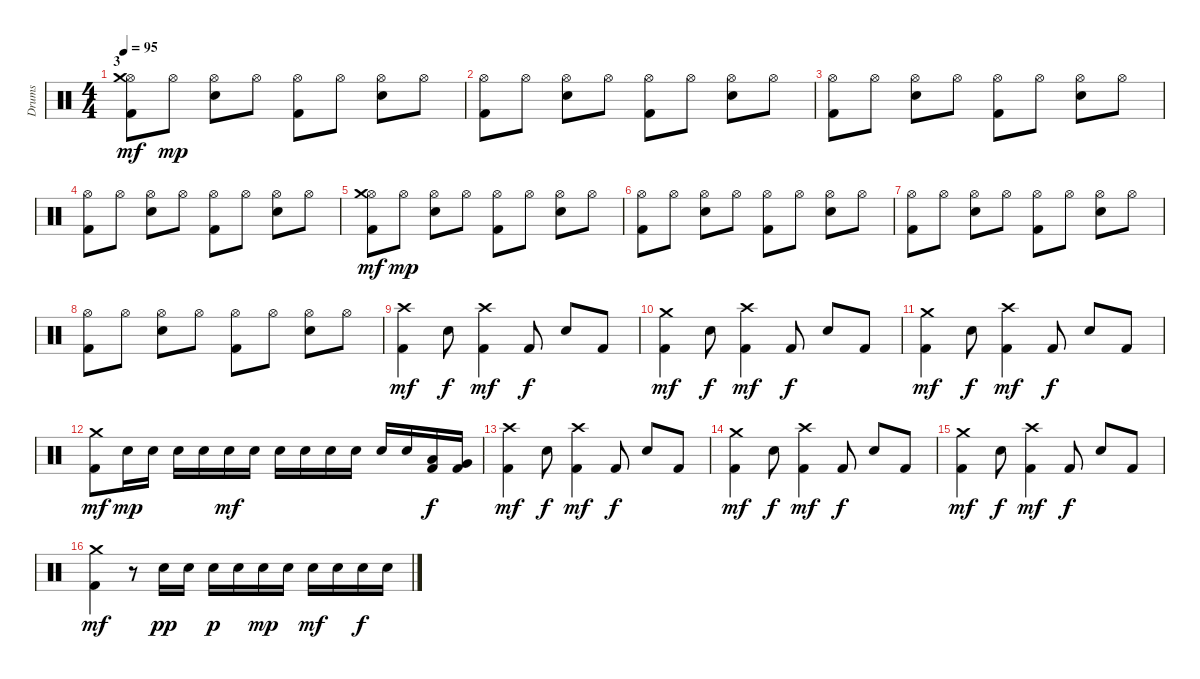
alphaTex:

\track ("Drums" "Drums") {instrument percussion}
\staff {score}
\articulation defaults
\ts (4 4)
\section ("" "3")
\tempo 95
\clef neutral
\ks c
("Kick (hit) 2" "Hi-Hat (open)" "Crash medium (hit)").8{dy mf} "Hi-Hat (open)".8{dy mp} ("Electric Snare (hit)" "Hi-Hat (open)").8 "Hi-Hat (open)".8 ("Kick (hit) 2" "Hi-Hat (open)").8 "Hi-Hat (open)".8 ("Electric Snare (hit)" "Hi-Hat (open)").8 "Hi-Hat (open)".8 |
("Kick (hit) 2" "Hi-Hat (open)").8 "Hi-Hat (open)".8 ("Electric Snare (hit)" "Hi-Hat (open)").8 "Hi-Hat (open)".8 ("Kick (hit) 2" "Hi-Hat (open)").8 "Hi-Hat (open)".8 ("Electric Snare (hit)" "Hi-Hat (open)").8 "Hi-Hat (open)".8 |
("Kick (hit) 2" "Hi-Hat (open)").8 "Hi-Hat (open)".8 ("Electric Snare (hit)" "Hi-Hat (open)").8 "Hi-Hat (open)".8 ("Kick (hit) 2" "Hi-Hat (open)").8 "Hi-Hat (open)".8 ("Electric Snare (hit)" "Hi-Hat (open)").8 "Hi-Hat (open)".8 |
("Kick (hit) 2" "Hi-Hat (open)").8 "Hi-Hat (open)".8 ("Electric Snare (hit)" "Hi-Hat (open)").8 "Hi-Hat (open)".8 ("Kick (hit) 2" "Hi-Hat (open)").8 "Hi-Hat (open)".8 ("Electric Snare (hit)" "Hi-Hat (open)").8 "Hi-Hat (open)".8 |
("Kick (hit) 2" "Hi-Hat (open)" "Crash medium (hit)").8{dy mf} "Hi-Hat (open)".8{dy mp} ("Electric Snare (hit)" "Hi-Hat (open)").8 "Hi-Hat (open)".8 ("Kick (hit) 2" "Hi-Hat (open)").8 "Hi-Hat (open)".8 ("Electric Snare (hit)" "Hi-Hat (open)").8 "Hi-Hat (open)".8 |
("Kick (hit) 2" "Hi-Hat (open)").8 "Hi-Hat (open)".8 ("Electric Snare (hit)" "Hi-Hat (open)").8 "Hi-Hat (open)".8 ("Kick (hit) 2" "Hi-Hat (open)").8 "Hi-Hat (open)".8 ("Electric Snare (hit)" "Hi-Hat (open)").8 "Hi-Hat (open)".8 |
("Kick (hit) 2" "Hi-Hat (open)").8 "Hi-Hat (open)".8 ("Electric Snare (hit)" "Hi-Hat (open)").8 "Hi-Hat (open)".8 ("Kick (hit) 2" "Hi-Hat (open)").8 "Hi-Hat (open)".8 ("Electric Snare (hit)" "Hi-Hat (open)").8 "Hi-Hat (open)".8 |
("Kick (hit) 2" "Hi-Hat (open)").8 "Hi-Hat (open)".8 ("Electric Snare (hit)" "Hi-Hat (open)").8 "Hi-Hat (open)".8 ("Kick (hit) 2" "Hi-Hat (open)").8 "Hi-Hat (open)".8 ("Electric Snare (hit)" "Hi-Hat (open)").8 "Hi-Hat (open)".8 |
("Kick (hit) 2" "Crash high (hit)").4{dy mf} "Electric Snare (hit)".8{dy f} ("Kick (hit) 2" "Crash high (hit)").4{dy mf} "Kick (hit) 2".8{dy f} "Electric Snare (hit)".8 "Kick (hit) 2".8 |
("Kick (hit) 2" "Crash medium (hit)").4{dy mf} "Electric Snare (hit)".8{dy f} ("Kick (hit) 2" "Crash high (hit)").4{dy mf} "Kick (hit) 2".8{dy f} "Electric Snare (hit)".8 "Kick (hit) 2".8 |
("Kick (hit) 2" "Crash medium (hit)").4{dy mf} "Electric Snare (hit)".8{dy f} ("Kick (hit) 2" "Crash high (hit)").4{dy mf} "Kick (hit) 2".8{dy f} "Electric Snare (hit)".8 "Kick (hit) 2".8 |
("Kick (hit) 2" "Crash medium (hit)").8{dy mf} "Electric Snare (hit)".16{dy mp} "Electric Snare (hit)".16 "Electric Snare (hit)".16 "Electric Snare (hit)".16 "Electric Snare (hit)".16{dy mf} "Electric Snare (hit)".16 "Electric Snare (hit)".16 "Electric Snare (hit)".16 "Electric Snare (hit)".16 "Electric Snare (hit)".16 "Electric Snare (hit)".16 "Electric Snare (hit)".16 ("Kick (hit) 2" "Low Tom (hit)").16{dy f} ("Kick (hit) 2" "Very Low Tom (hit)").16 |
("Kick (hit) 2" "Crash high (hit)").4{dy mf} "Electric Snare (hit)".8{dy f} ("Kick (hit) 2" "Crash high (hit)").4{dy mf} "Kick (hit) 2".8{dy f} "Electric Snare (hit)".8 "Kick (hit) 2".8 |
("Kick (hit) 2" "Crash medium (hit)").4{dy mf} "Electric Snare (hit)".8{dy f} ("Kick (hit) 2" "Crash high (hit)").4{dy mf} "Kick (hit) 2".8{dy f} "Electric Snare (hit)".8 "Kick (hit) 2".8 |
("Kick (hit) 2" "Crash medium (hit)").4{dy mf} "Electric Snare (hit)".8{dy f} ("Kick (hit) 2" "Crash high (hit)").4{dy mf} "Kick (hit) 2".8{dy f} "Electric Snare (hit)".8 "Kick (hit) 2".8 |
("Kick (hit) 2" "Crash medium (hit)").4{dy mf} r.8 "Electric Snare (hit)".16{dy pp} "Electric Snare (hit)".16 "Electric Snare (hit)".16{dy p} "Electric Snare (hit)".16 "Electric Snare (hit)".16{dy mp} "Electric Snare (hit)".16 "Electric Snare (hit)".16{dy mf} "Electric Snare (hit)".16 "Electric Snare (hit)".16{dy f} "Electric Snare (hit)".16
